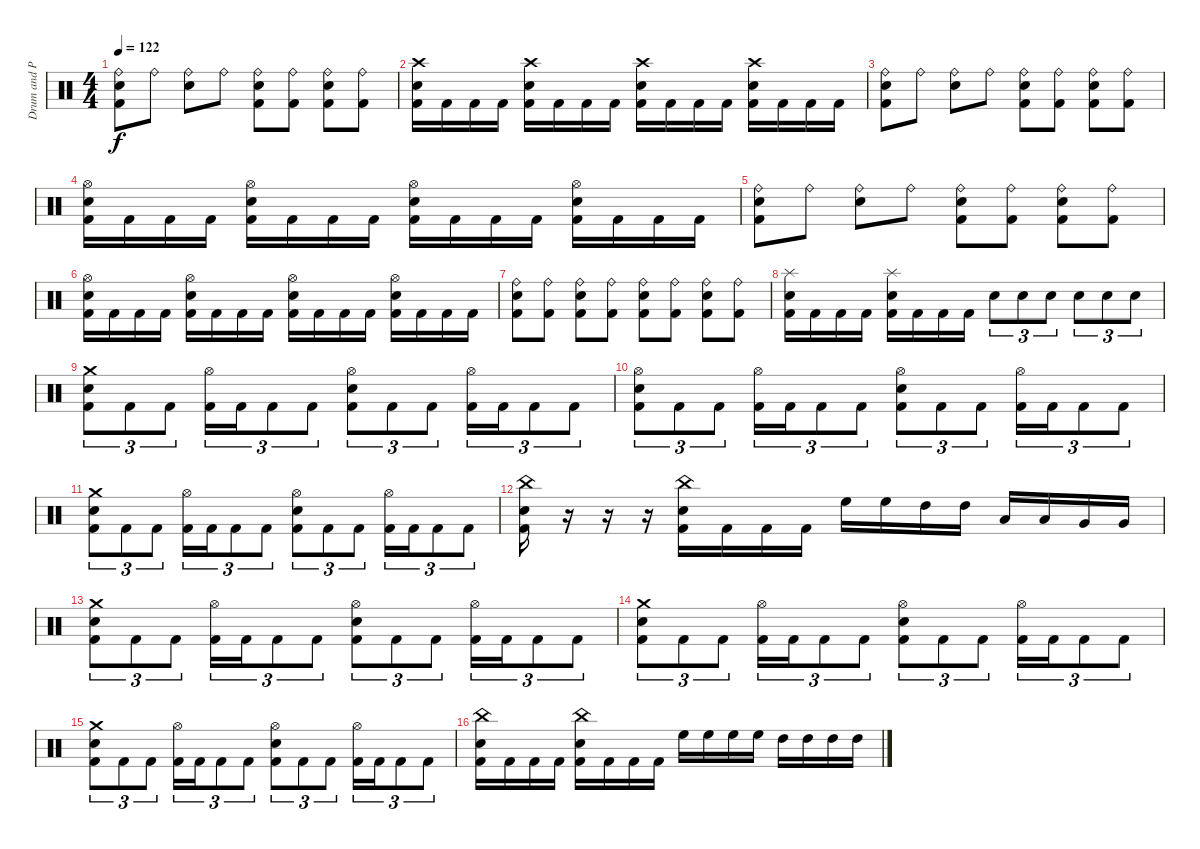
\track ("Drum and Persscusian" "Drum and P") {instrument percussion}
\staff {score}
\articulation defaults
\ts (4 4)
\tempo 122
\clef neutral
\ks c
("Ride (bell)" "Snare (hit) 2" "Kick (hit) 2").8{dy f} "Ride (bell)".8 ("Ride (bell)" "Snare (hit) 2").8 "Ride (bell)".8 ("Ride (bell)" "Snare (hit) 2" "Kick (hit) 2").8 ("Ride (bell)" "Kick (hit) 2").8 ("Ride (bell)" "Snare (hit) 2" "Kick (hit) 2").8 ("Ride (bell)" "Kick (hit) 2").8 |
("Crash high (hit)" "Snare (hit) 2" "Kick (hit) 2").16 "Kick (hit) 2".16 "Kick (hit) 2".16 "Kick (hit) 2".16 ("Crash high (hit)" "Snare (hit) 2" "Kick (hit) 2").16 "Kick (hit) 2".16 "Kick (hit) 2".16 "Kick (hit) 2".16 ("Crash high (hit)" "Snare (hit) 2" "Kick (hit) 2").16 "Kick (hit) 2".16 "Kick (hit) 2".16 "Kick (hit) 2".16 ("Crash high (hit)" "Snare (hit) 2" "Kick (hit) 2").16 "Kick (hit) 2".16 "Kick (hit) 2".16 "Kick (hit) 2".16 |
("Ride (bell)" "Snare (hit) 2" "Kick (hit) 2").8 "Ride (bell)".8 ("Ride (bell)" "Snare (hit) 2").8 "Ride (bell)".8 ("Ride (bell)" "Snare (hit) 2" "Kick (hit) 2").8 ("Ride (bell)" "Kick (hit) 2").8 ("Ride (bell)" "Snare (hit) 2" "Kick (hit) 2").8 ("Ride (bell)" "Kick (hit) 2").8 |
("Hi-Hat (open)" "Snare (hit) 2" "Kick (hit) 2").16 "Kick (hit) 2".16 "Kick (hit) 2".16 "Kick (hit) 2".16 ("Hi-Hat (open)" "Snare (hit) 2" "Kick (hit) 2").16 "Kick (hit) 2".16 "Kick (hit) 2".16 "Kick (hit) 2".16 ("Hi-Hat (open)" "Snare (hit) 2" "Kick (hit) 2").16 "Kick (hit) 2".16 "Kick (hit) 2".16 "Kick (hit) 2".16 ("Hi-Hat (open)" "Snare (hit) 2" "Kick (hit) 2").16 "Kick (hit) 2".16 "Kick (hit) 2".16 "Kick (hit) 2".16 |
("Ride (bell)" "Snare (hit) 2" "Kick (hit) 2").8 "Ride (bell)".8 ("Ride (bell)" "Snare (hit) 2").8 "Ride (bell)".8 ("Ride (bell)" "Snare (hit) 2" "Kick (hit) 2").8 ("Ride (bell)" "Kick (hit) 2").8 ("Ride (bell)" "Snare (hit) 2" "Kick (hit) 2").8 ("Ride (bell)" "Kick (hit) 2").8 |
("Hi-Hat (open)" "Snare (hit) 2" "Kick (hit) 2").16 "Kick (hit) 2".16 "Kick (hit) 2".16 "Kick (hit) 2".16 ("Hi-Hat (open)" "Snare (hit) 2" "Kick (hit) 2").16 "Kick (hit) 2".16 "Kick (hit) 2".16 "Kick (hit) 2".16 ("Hi-Hat (open)" "Snare (hit) 2" "Kick (hit) 2").16 "Kick (hit) 2".16 "Kick (hit) 2".16 "Kick (hit) 2".16 ("Hi-Hat (open)" "Snare (hit) 2" "Kick (hit) 2").16 "Kick (hit) 2".16 "Kick (hit) 2".16 "Kick (hit) 2".16 |
("Ride (bell)" "Snare (hit) 2" "Kick (hit) 2").8 ("Ride (bell)" "Kick (hit) 2").8 ("Ride (bell)" "Snare (hit) 2" "Kick (hit) 2").8 ("Ride (bell)" "Kick (hit) 2").8 ("Ride (bell)" "Snare (hit) 2" "Kick (hit) 2").8 ("Ride (bell)" "Kick (hit) 2").8 ("Ride (bell)" "Snare (hit) 2" "Kick (hit) 2").8 ("Ride (bell)" "Kick (hit) 2").8 |
("Splash (hit)" "Snare (hit) 2" "Kick (hit) 2").16 "Kick (hit) 2".16 "Kick (hit) 2".16 "Kick (hit) 2".16 ("Splash (hit)" "Snare (hit) 2" "Kick (hit) 2").16 "Kick (hit) 2".16 "Kick (hit) 2".16 "Kick (hit) 2".16 "Snare (hit) 2".8{tu (3 2)} "Snare (hit) 2".8{tu (3 2)} "Snare (hit) 2".8{tu (3 2)} "Snare (hit) 2".8{tu (3 2)} "Snare (hit) 2".8{tu (3 2)} "Snare (hit) 2".8{tu (3 2)} |
("Crash medium (hit)" "Snare (hit) 2" "Kick (hit) 2").8{tu (3 2)} "Kick (hit) 2".8{tu (3 2)} "Kick (hit) 2".8{tu (3 2)} ("Hi-Hat (open)" "Kick (hit) 2").16{tu (3 2)} "Kick (hit) 2".16{tu (3 2)} "Kick (hit) 2".8{tu (3 2)} "Kick (hit) 2".8{tu (3 2)} ("Hi-Hat (open)" "Snare (hit) 2" "Kick (hit) 2").8{tu (3 2)} "Kick (hit) 2".8{tu (3 2)} "Kick (hit) 2".8{tu (3 2)} ("Hi-Hat (open)" "Kick (hit) 2").16{tu (3 2)} "Kick (hit) 2".16{tu (3 2)} "Kick (hit) 2".8{tu (3 2)} "Kick (hit) 2".8{tu (3 2)} |
("Hi-Hat (open)" "Snare (hit) 2" "Kick (hit) 2").8{tu (3 2)} "Kick (hit) 2".8{tu (3 2)} "Kick (hit) 2".8{tu (3 2)} ("Hi-Hat (open)" "Kick (hit) 2").16{tu (3 2)} "Kick (hit) 2".16{tu (3 2)} "Kick (hit) 2".8{tu (3 2)} "Kick (hit) 2".8{tu (3 2)} ("Hi-Hat (open)" "Snare (hit) 2" "Kick (hit) 2").8{tu (3 2)} "Kick (hit) 2".8{tu (3 2)} "Kick (hit) 2".8{tu (3 2)} ("Hi-Hat (open)" "Kick (hit) 2").16{tu (3 2)} "Kick (hit) 2".16{tu (3 2)} "Kick (hit) 2".8{tu (3 2)} "Kick (hit) 2".8{tu (3 2)} |
("Crash medium (hit)" "Snare (hit) 2" "Kick (hit) 2").8{tu (3 2)} "Kick (hit) 2".8{tu (3 2)} "Kick (hit) 2".8{tu (3 2)} ("Hi-Hat (open)" "Kick (hit) 2").16{tu (3 2)} "Kick (hit) 2".16{tu (3 2)} "Kick (hit) 2".8{tu (3 2)} "Kick (hit) 2".8{tu (3 2)} ("Hi-Hat (open)" "Snare (hit) 2" "Kick (hit) 2").8{tu (3 2)} "Kick (hit) 2".8{tu (3 2)} "Kick (hit) 2".8{tu (3 2)} ("Hi-Hat (open)" "Kick (hit) 2").16{tu (3 2)} "Kick (hit) 2".16{tu (3 2)} "Kick (hit) 2".8{tu (3 2)} "Kick (hit) 2".8{tu (3 2)} |
("China (hit)" "Snare (hit) 2" "Kick (hit) 2").16 r.16 r.16 r.16 ("China (hit)" "Snare (hit) 2" "Kick (hit) 2").16 "Kick (hit) 2".16 "Kick (hit) 2".16 "Kick (hit) 2".16 "High Floor Tom (hit)".16 "High Floor Tom (hit)".16 "High Tom (hit)".16 "High Tom (hit)".16 "Low Tom (hit)".16 "Low Tom (hit)".16 "Very Low Tom (hit)".16 "Very Low Tom (hit)".16 |
("Crash medium (hit)" "Snare (hit) 2" "Kick (hit) 2").8{tu (3 2)} "Kick (hit) 2".8{tu (3 2)} "Kick (hit) 2".8{tu (3 2)} ("Hi-Hat (open)" "Kick (hit) 2").16{tu (3 2)} "Kick (hit) 2".16{tu (3 2)} "Kick (hit) 2".8{tu (3 2)} "Kick (hit) 2".8{tu (3 2)} ("Hi-Hat (open)" "Snare (hit) 2" "Kick (hit) 2").8{tu (3 2)} "Kick (hit) 2".8{tu (3 2)} "Kick (hit) 2".8{tu (3 2)} ("Hi-Hat (open)" "Kick (hit) 2").16{tu (3 2)} "Kick (hit) 2".16{tu (3 2)} "Kick (hit) 2".8{tu (3 2)} "Kick (hit) 2".8{tu (3 2)} |
("Crash medium (hit)" "Snare (hit) 2" "Kick (hit) 2").8{tu (3 2)} "Kick (hit) 2".8{tu (3 2)} "Kick (hit) 2".8{tu (3 2)} ("Hi-Hat (open)" "Kick (hit) 2").16{tu (3 2)} "Kick (hit) 2".16{tu (3 2)} "Kick (hit) 2".8{tu (3 2)} "Kick (hit) 2".8{tu (3 2)} ("Hi-Hat (open)" "Snare (hit) 2" "Kick (hit) 2").8{tu (3 2)} "Kick (hit) 2".8{tu (3 2)} "Kick (hit) 2".8{tu (3 2)} ("Hi-Hat (open)" "Kick (hit) 2").16{tu (3 2)} "Kick (hit) 2".16{tu (3 2)} "Kick (hit) 2".8{tu (3 2)} "Kick (hit) 2".8{tu (3 2)} |
("Crash medium (hit)" "Snare (hit) 2" "Kick (hit) 2").8{tu (3 2)} "Kick (hit) 2".8{tu (3 2)} "Kick (hit) 2".8{tu (3 2)} ("Hi-Hat (open)" "Kick (hit) 2").16{tu (3 2)} "Kick (hit) 2".16{tu (3 2)} "Kick (hit) 2".8{tu (3 2)} "Kick (hit) 2".8{tu (3 2)} ("Hi-Hat (open)" "Snare (hit) 2" "Kick (hit) 2").8{tu (3 2)} "Kick (hit) 2".8{tu (3 2)} "Kick (hit) 2".8{tu (3 2)} ("Hi-Hat (open)" "Kick (hit) 2").16{tu (3 2)} "Kick (hit) 2".16{tu (3 2)} "Kick (hit) 2".8{tu (3 2)} "Kick (hit) 2".8{tu (3 2)} |
("China (hit)" "Snare (hit) 2" "Kick (hit) 2").16 "Kick (hit) 2".16 "Kick (hit) 2".16 "Kick (hit) 2".16 ("China (hit)" "Snare (hit) 2" "Kick (hit) 2").16 "Kick (hit) 2".16 "Kick (hit) 2".16 "Kick (hit) 2".16 "High Floor Tom (hit)".16 "High Floor Tom (hit)".16 "High Floor Tom (hit)".16 "High Floor Tom (hit)".16 "High Tom (hit)".16 "High Tom (hit)".16 "High Tom (hit)".16 "High Tom (hit)".16
